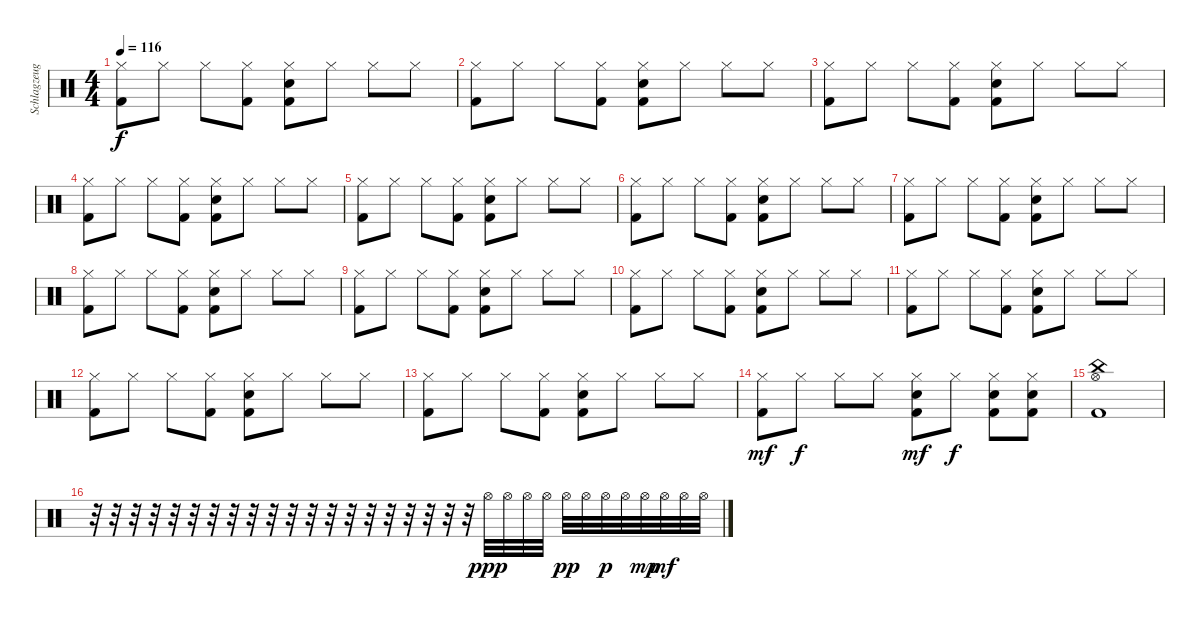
\track ("Schlagzeug" "Schlagzeug") {instrument percussion}
\staff {score}
\articulation defaults
\ts (4 4)
\tempo 116
\clef neutral
\ks c
("Hi-Hat (closed)" "Kick (hit) 2").8{dy f} "Hi-Hat (closed)".8 "Hi-Hat (closed)".8 ("Hi-Hat (closed)" "Kick (hit) 2").8 ("Snare (hit) 2" "Hi-Hat (closed)" "Kick (hit) 2").8 "Hi-Hat (closed)".8 "Hi-Hat (closed)".8 "Hi-Hat (closed)".8 |
("Hi-Hat (closed)" "Kick (hit) 2").8 "Hi-Hat (closed)".8 "Hi-Hat (closed)".8 ("Hi-Hat (closed)" "Kick (hit) 2").8 ("Snare (hit) 2" "Hi-Hat (closed)" "Kick (hit) 2").8 "Hi-Hat (closed)".8 "Hi-Hat (closed)".8 "Hi-Hat (closed)".8 |
("Hi-Hat (closed)" "Kick (hit) 2").8 "Hi-Hat (closed)".8 "Hi-Hat (closed)".8 ("Hi-Hat (closed)" "Kick (hit) 2").8 ("Snare (hit) 2" "Hi-Hat (closed)" "Kick (hit) 2").8 "Hi-Hat (closed)".8 "Hi-Hat (closed)".8 "Hi-Hat (closed)".8 |
("Hi-Hat (closed)" "Kick (hit) 2").8 "Hi-Hat (closed)".8 "Hi-Hat (closed)".8 ("Hi-Hat (closed)" "Kick (hit) 2").8 ("Snare (hit) 2" "Hi-Hat (closed)" "Kick (hit) 2").8 "Hi-Hat (closed)".8 "Hi-Hat (closed)".8 "Hi-Hat (closed)".8 |
("Hi-Hat (closed)" "Kick (hit) 2").8 "Hi-Hat (closed)".8 "Hi-Hat (closed)".8 ("Hi-Hat (closed)" "Kick (hit) 2").8 ("Snare (hit) 2" "Hi-Hat (closed)" "Kick (hit) 2").8 "Hi-Hat (closed)".8 "Hi-Hat (closed)".8 "Hi-Hat (closed)".8 |
("Hi-Hat (closed)" "Kick (hit) 2").8 "Hi-Hat (closed)".8 "Hi-Hat (closed)".8 ("Hi-Hat (closed)" "Kick (hit) 2").8 ("Snare (hit) 2" "Hi-Hat (closed)" "Kick (hit) 2").8 "Hi-Hat (closed)".8 "Hi-Hat (closed)".8 "Hi-Hat (closed)".8 |
("Hi-Hat (closed)" "Kick (hit) 2").8 "Hi-Hat (closed)".8 "Hi-Hat (closed)".8 ("Hi-Hat (closed)" "Kick (hit) 2").8 ("Snare (hit) 2" "Hi-Hat (closed)" "Kick (hit) 2").8 "Hi-Hat (closed)".8 "Hi-Hat (closed)".8 "Hi-Hat (closed)".8 |
("Hi-Hat (closed)" "Kick (hit) 2").8 "Hi-Hat (closed)".8 "Hi-Hat (closed)".8 ("Hi-Hat (closed)" "Kick (hit) 2").8 ("Snare (hit) 2" "Hi-Hat (closed)" "Kick (hit) 2").8 "Hi-Hat (closed)".8 "Hi-Hat (closed)".8 "Hi-Hat (closed)".8 |
("Hi-Hat (closed)" "Kick (hit) 2").8 "Hi-Hat (closed)".8 "Hi-Hat (closed)".8 ("Hi-Hat (closed)" "Kick (hit) 2").8 ("Snare (hit) 2" "Hi-Hat (closed)" "Kick (hit) 2").8 "Hi-Hat (closed)".8 "Hi-Hat (closed)".8 "Hi-Hat (closed)".8 |
("Hi-Hat (closed)" "Kick (hit) 2").8 "Hi-Hat (closed)".8 "Hi-Hat (closed)".8 ("Hi-Hat (closed)" "Kick (hit) 2").8 ("Snare (hit) 2" "Hi-Hat (closed)" "Kick (hit) 2").8 "Hi-Hat (closed)".8 "Hi-Hat (closed)".8 "Hi-Hat (closed)".8 |
("Hi-Hat (closed)" "Kick (hit) 2").8 "Hi-Hat (closed)".8 "Hi-Hat (closed)".8 ("Hi-Hat (closed)" "Kick (hit) 2").8 ("Snare (hit) 2" "Hi-Hat (closed)" "Kick (hit) 2").8 "Hi-Hat (closed)".8 "Hi-Hat (closed)".8 "Hi-Hat (closed)".8 |
("Hi-Hat (closed)" "Kick (hit) 2").8 "Hi-Hat (closed)".8 "Hi-Hat (closed)".8 ("Hi-Hat (closed)" "Kick (hit) 2").8 ("Snare (hit) 2" "Hi-Hat (closed)" "Kick (hit) 2").8 "Hi-Hat (closed)".8 "Hi-Hat (closed)".8 "Hi-Hat (closed)".8 |
("Hi-Hat (closed)" "Kick (hit) 2").8 "Hi-Hat (closed)".8 "Hi-Hat (closed)".8 ("Hi-Hat (closed)" "Kick (hit) 2").8 ("Snare (hit) 2" "Hi-Hat (closed)" "Kick (hit) 2").8 "Hi-Hat (closed)".8 "Hi-Hat (closed)".8 "Hi-Hat (closed)".8 |
("Hi-Hat (closed)" "Kick (hit) 2").8{dy mf} "Hi-Hat (closed)".8{dy f} "Hi-Hat (closed)".8 "Hi-Hat (closed)".8 ("Snare (hit) 2" "Hi-Hat (closed)" "Kick (hit) 2").8{dy mf} "Hi-Hat (closed)".8{dy f} ("Snare (hit) 2" "Hi-Hat (closed)" "Kick (hit) 2").8 ("Snare (hit) 2" "Hi-Hat (closed)" "Kick (hit) 2").8 |
("Hi-Hat (open)" "China (hit)" "Kick (hit) 2").1 |
r.32 r.32 r.32 r.32 r.32 r.32 r.32 r.32 r.32 r.32 r.32 r.32 r.32 r.32 r.32 r.32 r.32 r.32 r.32 r.32 "Hi-Hat (open)".32{dy ppp} "Hi-Hat (open)".32 "Hi-Hat (open)".32 "Hi-Hat (open)".32 "Hi-Hat (open)".32{dy pp} "Hi-Hat (open)".32 "Hi-Hat (open)".32{dy p} "Hi-Hat (open)".32 "Hi-Hat (open)".32{dy mp} "Hi-Hat (open)".32{dy mf} "Hi-Hat (open)".32 "Hi-Hat (open)".32
